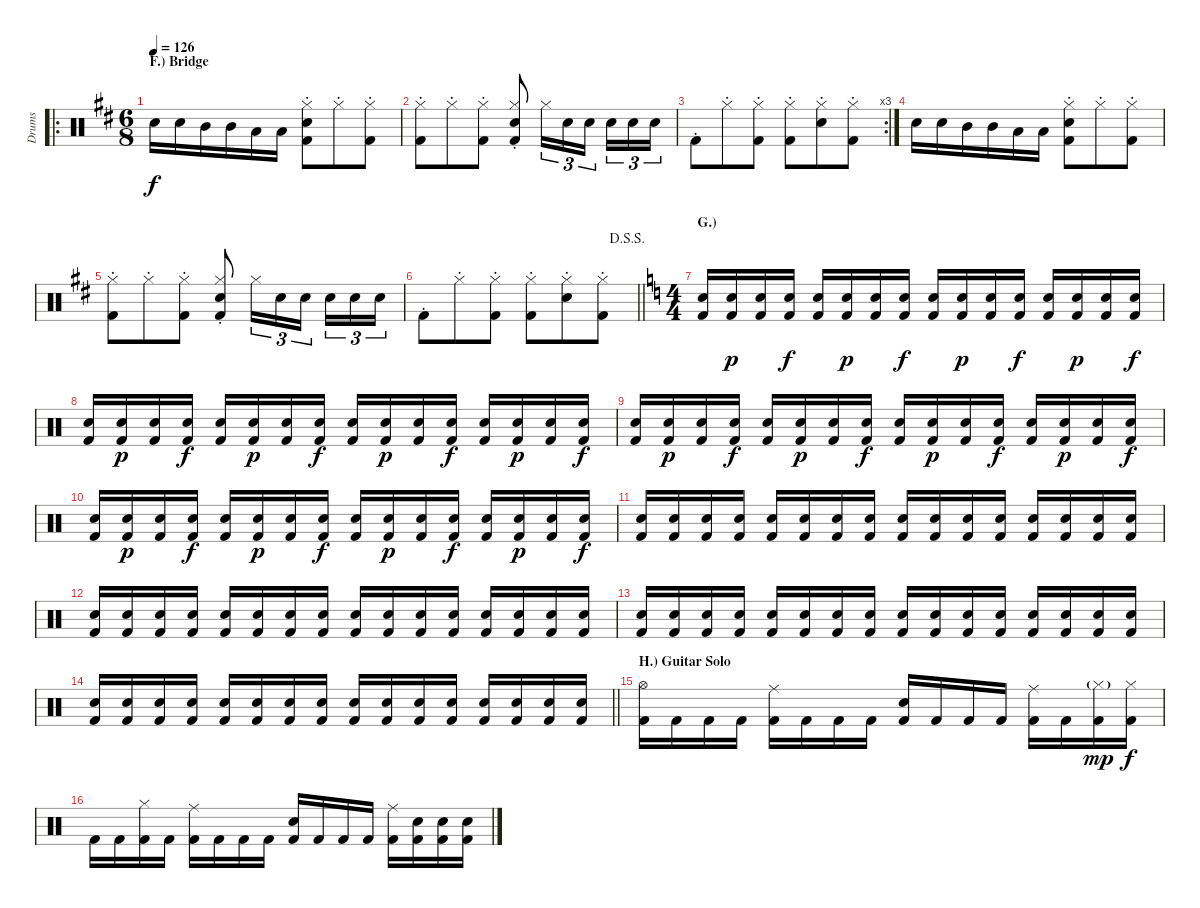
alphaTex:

\track ("Drums" "Drums") {instrument percussion}
\staff {score}
\articulation defaults
\ro
\ts (6 8)
\section ("" "F.) Bridge")
\tempo 126
\clef neutral
\ks d "Electric Snare (hit)".16{dy f} "Electric Snare (hit)".16 "Mid Tom (hit)".16 "Mid Tom (hit)".16 "Low Tom (hit)".16 "Low Tom (hit)".16
("Electric Snare (hit)"{st} "Hi-Hat (closed)"{st} "Kick (hit) 2"{st}).8 "Hi-Hat (closed)"{st}.8 ("Hi-Hat (closed)"{st} "Kick (hit) 2"{st}).8 |
("Hi-Hat (closed)"{st} "Kick (hit) 2"{st}).8 "Hi-Hat (closed)"{st}.8 ("Hi-Hat (closed)"{st} "Kick (hit) 2"{st}).8 ("Electric Snare (hit)"{st} "Hi-Hat (closed)"{st} "Kick (hit) 2"{st}).8 "Hi-Hat (closed)".16{tu (3 2)} "Electric Snare (hit)".16{tu (3 2)} "Electric Snare (hit)".16{tu (3 2) beam splitsecondary} "Electric Snare (hit)".16{tu (3 2)} "Electric Snare (hit)".16{tu (3 2)} "Electric Snare (hit)".16{tu (3 2)} |
\rc 3 "Kick (hit) 2"{st}.8 "Hi-Hat (closed)"{st}.8
("Hi-Hat (closed)"{st} "Kick (hit) 2"{st}).8 ("Hi-Hat (closed)"{st} "Kick (hit) 2"{st}).8 ("Electric Snare (hit)"{st} "Hi-Hat (closed)"{st}).8 ("Hi-Hat (closed)"{st} "Kick (hit) 2"{st}).8 |
"Electric Snare (hit)".16 "Electric Snare (hit)".16 "Mid Tom (hit)".16 "Mid Tom (hit)".16 "Low Tom (hit)".16 "Low Tom (hit)".16 ("Electric Snare (hit)"{st} "Hi-Hat (closed)"{st} "Kick (hit) 2"{st}).8 "Hi-Hat (closed)"{st}.8 ("Hi-Hat (closed)"{st} "Kick (hit) 2"{st}).8 |
("Hi-Hat (closed)"{st} "Kick (hit) 2"{st}).8 "Hi-Hat (closed)"{st}.8 ("Hi-Hat (closed)"{st} "Kick (hit) 2"{st}).8 ("Electric Snare (hit)"{st} "Hi-Hat (closed)"{st} "Kick (hit) 2"{st}).8 "Hi-Hat (closed)".16{tu (3 2)} "Electric Snare (hit)".16{tu (3 2)} "Electric Snare (hit)".16{tu (3 2) beam splitsecondary} "Electric Snare (hit)".16{tu (3 2)} "Electric Snare (hit)".16{tu (3 2)} "Electric Snare (hit)".16{tu (3 2)} |
\jump dalsegnosegno
\barLineRight lightlight "Kick (hit) 2"{st}.8 "Hi-Hat (closed)"{st}.8
("Hi-Hat (closed)"{st} "Kick (hit) 2"{st}).8 ("Hi-Hat (closed)"{st} "Kick (hit) 2"{st}).8 ("Electric Snare (hit)"{st} "Hi-Hat (closed)"{st}).8 ("Hi-Hat (closed)"{st} "Kick (hit) 2"{st}).8 |
\ts (4 4)
\section ("" "G.) ")
\ks c
("Electric Snare (hit)" "Kick (hit) 2").16 ("Electric Snare (hit)" "Kick (hit) 2").16{dy p} ("Electric Snare (hit)" "Kick (hit) 2").16 ("Electric Snare (hit)" "Kick (hit) 2").16{dy f} ("Electric Snare (hit)" "Kick (hit) 2").16 ("Electric Snare (hit)" "Kick (hit) 2").16{dy p} ("Electric Snare (hit)" "Kick (hit) 2").16 ("Electric Snare (hit)" "Kick (hit) 2").16{dy f} ("Electric Snare (hit)" "Kick (hit) 2").16 ("Electric Snare (hit)" "Kick (hit) 2").16{dy p} ("Electric Snare (hit)" "Kick (hit) 2").16 ("Electric Snare (hit)" "Kick (hit) 2").16{dy f} ("Electric Snare (hit)" "Kick (hit) 2").16 ("Electric Snare (hit)" "Kick (hit) 2").16{dy p} ("Electric Snare (hit)" "Kick (hit) 2").16 ("Electric Snare (hit)" "Kick (hit) 2").16{dy f} |
("Electric Snare (hit)" "Kick (hit) 2").16 ("Electric Snare (hit)" "Kick (hit) 2").16{dy p} ("Electric Snare (hit)" "Kick (hit) 2").16 ("Electric Snare (hit)" "Kick (hit) 2").16{dy f} ("Electric Snare (hit)" "Kick (hit) 2").16 ("Electric Snare (hit)" "Kick (hit) 2").16{dy p} ("Electric Snare (hit)" "Kick (hit) 2").16 ("Electric Snare (hit)" "Kick (hit) 2").16{dy f} ("Electric Snare (hit)" "Kick (hit) 2").16 ("Electric Snare (hit)" "Kick (hit) 2").16{dy p} ("Electric Snare (hit)" "Kick (hit) 2").16 ("Electric Snare (hit)" "Kick (hit) 2").16{dy f} ("Electric Snare (hit)" "Kick (hit) 2").16 ("Electric Snare (hit)" "Kick (hit) 2").16{dy p} ("Electric Snare (hit)" "Kick (hit) 2").16 ("Electric Snare (hit)" "Kick (hit) 2").16{dy f} |
("Electric Snare (hit)" "Kick (hit) 2").16 ("Electric Snare (hit)" "Kick (hit) 2").16{dy p} ("Electric Snare (hit)" "Kick (hit) 2").16 ("Electric Snare (hit)" "Kick (hit) 2").16{dy f} ("Electric Snare (hit)" "Kick (hit) 2").16 ("Electric Snare (hit)" "Kick (hit) 2").16{dy p} ("Electric Snare (hit)" "Kick (hit) 2").16 ("Electric Snare (hit)" "Kick (hit) 2").16{dy f} ("Electric Snare (hit)" "Kick (hit) 2").16 ("Electric Snare (hit)" "Kick (hit) 2").16{dy p} ("Electric Snare (hit)" "Kick (hit) 2").16 ("Electric Snare (hit)" "Kick (hit) 2").16{dy f} ("Electric Snare (hit)" "Kick (hit) 2").16 ("Electric Snare (hit)" "Kick (hit) 2").16{dy p} ("Electric Snare (hit)" "Kick (hit) 2").16 ("Electric Snare (hit)" "Kick (hit) 2").16{dy f} |
("Electric Snare (hit)" "Kick (hit) 2").16 ("Electric Snare (hit)" "Kick (hit) 2").16{dy p} ("Electric Snare (hit)" "Kick (hit) 2").16 ("Electric Snare (hit)" "Kick (hit) 2").16{dy f} ("Electric Snare (hit)" "Kick (hit) 2").16 ("Electric Snare (hit)" "Kick (hit) 2").16{dy p} ("Electric Snare (hit)" "Kick (hit) 2").16 ("Electric Snare (hit)" "Kick (hit) 2").16{dy f} ("Electric Snare (hit)" "Kick (hit) 2").16 ("Electric Snare (hit)" "Kick (hit) 2").16{dy p} ("Electric Snare (hit)" "Kick (hit) 2").16 ("Electric Snare (hit)" "Kick (hit) 2").16{dy f} ("Electric Snare (hit)" "Kick (hit) 2").16 ("Electric Snare (hit)" "Kick (hit) 2").16{dy p} ("Electric Snare (hit)" "Kick (hit) 2").16 ("Electric Snare (hit)" "Kick (hit) 2").16{dy f} |
("Electric Snare (hit)" "Kick (hit) 2").16 ("Electric Snare (hit)" "Kick (hit) 2").16 ("Electric Snare (hit)" "Kick (hit) 2").16 ("Electric Snare (hit)" "Kick (hit) 2").16 ("Electric Snare (hit)" "Kick (hit) 2").16 ("Electric Snare (hit)" "Kick (hit) 2").16 ("Electric Snare (hit)" "Kick (hit) 2").16 ("Electric Snare (hit)" "Kick (hit) 2").16 ("Electric Snare (hit)" "Kick (hit) 2").16 ("Electric Snare (hit)" "Kick (hit) 2").16 ("Electric Snare (hit)" "Kick (hit) 2").16 ("Electric Snare (hit)" "Kick (hit) 2").16 ("Electric Snare (hit)" "Kick (hit) 2").16 ("Electric Snare (hit)" "Kick (hit) 2").16 ("Electric Snare (hit)" "Kick (hit) 2").16 ("Electric Snare (hit)" "Kick (hit) 2").16 |
("Electric Snare (hit)" "Kick (hit) 2").16 ("Electric Snare (hit)" "Kick (hit) 2").16 ("Electric Snare (hit)" "Kick (hit) 2").16 ("Electric Snare (hit)" "Kick (hit) 2").16 ("Electric Snare (hit)" "Kick (hit) 2").16 ("Electric Snare (hit)" "Kick (hit) 2").16 ("Electric Snare (hit)" "Kick (hit) 2").16 ("Electric Snare (hit)" "Kick (hit) 2").16 ("Electric Snare (hit)" "Kick (hit) 2").16 ("Electric Snare (hit)" "Kick (hit) 2").16 ("Electric Snare (hit)" "Kick (hit) 2").16 ("Electric Snare (hit)" "Kick (hit) 2").16 ("Electric Snare (hit)" "Kick (hit) 2").16 ("Electric Snare (hit)" "Kick (hit) 2").16 ("Electric Snare (hit)" "Kick (hit) 2").16 ("Electric Snare (hit)" "Kick (hit) 2").16 |
("Electric Snare (hit)" "Kick (hit) 2").16 ("Electric Snare (hit)" "Kick (hit) 2").16 ("Electric Snare (hit)" "Kick (hit) 2").16 ("Electric Snare (hit)" "Kick (hit) 2").16 ("Electric Snare (hit)" "Kick (hit) 2").16 ("Electric Snare (hit)" "Kick (hit) 2").16 ("Electric Snare (hit)" "Kick (hit) 2").16 ("Electric Snare (hit)" "Kick (hit) 2").16 ("Electric Snare (hit)" "Kick (hit) 2").16 ("Electric Snare (hit)" "Kick (hit) 2").16 ("Electric Snare (hit)" "Kick (hit) 2").16 ("Electric Snare (hit)" "Kick (hit) 2").16 ("Electric Snare (hit)" "Kick (hit) 2").16 ("Electric Snare (hit)" "Kick (hit) 2").16 ("Electric Snare (hit)" "Kick (hit) 2").16 ("Electric Snare (hit)" "Kick (hit) 2").16 |
\barLineRight lightlight
("Electric Snare (hit)" "Kick (hit) 2").16 ("Electric Snare (hit)" "Kick (hit) 2").16 ("Electric Snare (hit)" "Kick (hit) 2").16 ("Electric Snare (hit)" "Kick (hit) 2").16 ("Electric Snare (hit)" "Kick (hit) 2").16 ("Electric Snare (hit)" "Kick (hit) 2").16 ("Electric Snare (hit)" "Kick (hit) 2").16 ("Electric Snare (hit)" "Kick (hit) 2").16 ("Electric Snare (hit)" "Kick (hit) 2").16 ("Electric Snare (hit)" "Kick (hit) 2").16 ("Electric Snare (hit)" "Kick (hit) 2").16 ("Electric Snare (hit)" "Kick (hit) 2").16 ("Electric Snare (hit)" "Kick (hit) 2").16 ("Electric Snare (hit)" "Kick (hit) 2").16 ("Electric Snare (hit)" "Kick (hit) 2").16 ("Electric Snare (hit)" "Kick (hit) 2").16 |
\section ("" "H.) Guitar Solo")
("Hi-Hat (open)" "Kick (hit) 2").16 "Kick (hit) 2".16 "Kick (hit) 2".16 "Kick (hit) 2".16 ("Ride (middle)" "Kick (hit) 2").16 "Kick (hit) 2".16 "Kick (hit) 2".16 "Kick (hit) 2".16 ("Electric Snare (hit)" "Kick (hit) 2").16 "Kick (hit) 2".16 "Kick (hit) 2".16 "Kick (hit) 2".16 ("Ride (middle)" "Kick (hit) 2").16 "Kick (hit) 2".16 ("Hi-Hat (closed)"{g} "Kick (hit) 2").16{dy mp} ("Hi-Hat (closed)" "Kick (hit) 2").16{dy f} |
"Kick (hit) 2".16 "Kick (hit) 2".16 ("Hi-Hat (closed)" "Kick (hit) 2").16 "Kick (hit) 2".16 ("Ride (middle)" "Kick (hit) 2").16 "Kick (hit) 2".16 "Kick (hit) 2".16 "Kick (hit) 2".16 ("Electric Snare (hit)" "Kick (hit) 2").16 "Kick (hit) 2".16 "Kick (hit) 2".16 "Kick (hit) 2".16 ("Ride (middle)" "Kick (hit) 2").16 ("Electric Snare (hit)" "Kick (hit) 2").16 ("Electric Snare (hit)" "Kick (hit) 2").16 ("Electric Snare (hit)" "Kick (hit) 2").16
